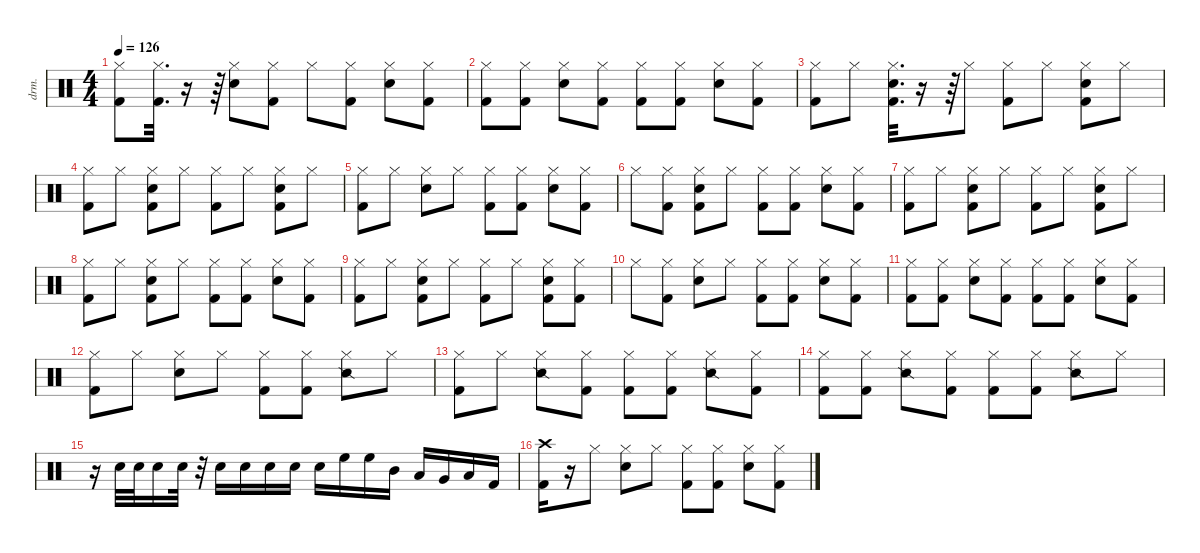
\defaultSystemsLayout 4
\hideDynamics
\bracketExtendMode nobrackets
\otherSystemsTrackNameOrientation horizontal
\track ("Drums" "drm.") {instrument percussion}
\staff {score}
\articulation defaults
\ts (4 4)
\tempo 126
\clef neutral
\ks c
("Kick (hit) 2" "Hi-Hat (closed)").8{dy f beam Down} ("Kick (hit) 2" "Hi-Hat (closed)").32{d beam Down} r.16{beam Down} r.64{beam Down} ("Snare (hit) 2" "Hi-Hat (closed)").8{beam Down} ("Hi-Hat (closed)" "Kick (hit) 2").8{beam Down} "Hi-Hat (closed)".8{beam Down} ("Hi-Hat (closed)" "Kick (hit) 2").8{beam Down} ("Snare (hit) 2" "Hi-Hat (closed)").8{beam Down} ("Kick (hit) 2" "Hi-Hat (closed)").8{beam Down} |
("Kick (hit) 2" "Hi-Hat (closed)").8{beam Down} ("Kick (hit) 2" "Hi-Hat (closed)").8{beam Down} ("Snare (hit) 2" "Hi-Hat (closed)").8{beam Down} ("Kick (hit) 2" "Hi-Hat (closed)").8{beam Down} ("Hi-Hat (closed)" "Kick (hit) 2").8{beam Down} ("Hi-Hat (closed)" "Kick (hit) 2").8{beam Down} ("Snare (hit) 2" "Hi-Hat (closed)").8{beam Down} ("Kick (hit) 2" "Hi-Hat (closed)").8{beam Down} |
("Kick (hit) 2" "Hi-Hat (closed)").8{beam Down} "Hi-Hat (closed)".8{beam Down} ("Kick (hit) 2" "Snare (hit) 2" "Hi-Hat (closed)").32{d beam Down} r.16{beam Down} r.64{beam Down} "Hi-Hat (closed)".8{beam Down} ("Hi-Hat (closed)" "Kick (hit) 2").8{beam Down} "Hi-Hat (closed)".8{beam Down} ("Snare (hit) 2" "Hi-Hat (closed)" "Kick (hit) 2").8{beam Down} "Hi-Hat (closed)".8{beam Down} |
("Kick (hit) 2" "Hi-Hat (closed)").8{beam Down} "Hi-Hat (closed)".8{beam Down} ("Kick (hit) 2" "Snare (hit) 2" "Hi-Hat (closed)").8{beam Down} "Hi-Hat (closed)".8{beam Down} ("Hi-Hat (closed)" "Kick (hit) 2").8{beam Down} "Hi-Hat (closed)".8{beam Down} ("Snare (hit) 2" "Hi-Hat (closed)" "Kick (hit) 2").8{beam Down} "Hi-Hat (closed)".8{beam Down} |
("Kick (hit) 2" "Hi-Hat (closed)").8{beam Down} "Hi-Hat (closed)".8{beam Down} ("Snare (hit) 2" "Hi-Hat (closed)").8{beam Down} "Hi-Hat (closed)".8{beam Down} ("Hi-Hat (closed)" "Kick (hit) 2").8{beam Down} ("Hi-Hat (closed)" "Kick (hit) 2").8{beam Down} ("Snare (hit) 2" "Hi-Hat (closed)").8{beam Down} ("Kick (hit) 2" "Hi-Hat (closed)").8{beam Down} |
"Hi-Hat (closed)".8{beam Down} ("Hi-Hat (closed)" "Kick (hit) 2").8{beam Down} ("Kick (hit) 2" "Snare (hit) 2" "Hi-Hat (closed)").8{beam Down} "Hi-Hat (closed)".8{beam Down} ("Hi-Hat (closed)" "Kick (hit) 2").8{beam Down} ("Hi-Hat (closed)" "Kick (hit) 2").8{beam Down} ("Snare (hit) 2" "Hi-Hat (closed)").8{beam Down} ("Kick (hit) 2" "Hi-Hat (closed)").8{beam Down} |
("Kick (hit) 2" "Hi-Hat (closed)").8{beam Down} "Hi-Hat (closed)".8{beam Down} ("Kick (hit) 2" "Snare (hit) 2" "Hi-Hat (closed)").8{beam Down} "Hi-Hat (closed)".8{beam Down} ("Hi-Hat (closed)" "Kick (hit) 2").8{beam Down} "Hi-Hat (closed)".8{beam Down} ("Snare (hit) 2" "Hi-Hat (closed)" "Kick (hit) 2").8{beam Down} "Hi-Hat (closed)".8{beam Down} |
("Kick (hit) 2" "Hi-Hat (closed)").8{beam Down} "Hi-Hat (closed)".8{beam Down} ("Kick (hit) 2" "Snare (hit) 2" "Hi-Hat (closed)").8{beam Down} "Hi-Hat (closed)".8{beam Down} ("Hi-Hat (closed)" "Kick (hit) 2").8{beam Down} ("Hi-Hat (closed)" "Kick (hit) 2").8{beam Down} ("Snare (hit) 2" "Hi-Hat (closed)").8{beam Down} ("Hi-Hat (closed)" "Kick (hit) 2").8{beam Down} |
("Kick (hit) 2" "Hi-Hat (closed)").8{beam Down} "Hi-Hat (closed)".8{beam Down} ("Kick (hit) 2" "Snare (hit) 2" "Hi-Hat (closed)").8{beam Down} "Hi-Hat (closed)".8{beam Down} ("Hi-Hat (closed)" "Kick (hit) 2").8{beam Down} "Hi-Hat (closed)".8{beam Down} ("Snare (hit) 2" "Hi-Hat (closed)" "Kick (hit) 2").8{beam Down} ("Kick (hit) 2" "Hi-Hat (closed)").8{beam Down} |
"Hi-Hat (closed)".8{beam Down} ("Hi-Hat (closed)" "Kick (hit) 2").8{beam Down} ("Snare (hit) 2" "Hi-Hat (closed)").8{beam Down} "Hi-Hat (closed)".8{beam Down} ("Hi-Hat (closed)" "Kick (hit) 2").8{beam Down} ("Hi-Hat (closed)" "Kick (hit) 2").8{beam Down} ("Snare (hit) 2" "Hi-Hat (closed)").8{beam Down} ("Kick (hit) 2" "Hi-Hat (closed)").8{beam Down} |
("Kick (hit) 2" "Hi-Hat (closed)").8{beam Down} ("Kick (hit) 2" "Hi-Hat (closed)").8{beam Down} ("Snare (hit) 2" "Hi-Hat (closed)").8{beam Down} ("Kick (hit) 2" "Hi-Hat (closed)").8{beam Down} ("Hi-Hat (closed)" "Kick (hit) 2").8{beam Down} ("Hi-Hat (closed)" "Kick (hit) 2").8{beam Down} ("Snare (hit) 2" "Hi-Hat (closed)").8{beam Down} ("Kick (hit) 2" "Hi-Hat (closed)").8{beam Down} |
("Kick (hit) 2" "Hi-Hat (closed)").8{beam Down} "Hi-Hat (closed)".8{beam Down} ("Snare (hit) 2" "Hi-Hat (closed)").8{beam Down} "Hi-Hat (closed)".8{beam Down} ("Hi-Hat (closed)" "Kick (hit) 2").8{beam Down} ("Hi-Hat (closed)" "Kick (hit) 2").8{beam Down} ("Snare (side stick) 2" "Hi-Hat (closed)").8{beam Down} "Hi-Hat (closed)".8{beam Down} |
("Kick (hit) 2" "Hi-Hat (closed)").8{beam Down} "Hi-Hat (closed)".8{beam Down} ("Snare (side stick) 2" "Hi-Hat (closed)").8{beam Down} ("Kick (hit) 2" "Hi-Hat (closed)").8{beam Down} ("Hi-Hat (closed)" "Kick (hit) 2").8{beam Down} ("Hi-Hat (closed)" "Kick (hit) 2").8{beam Down} ("Snare (side stick) 2" "Hi-Hat (closed)").8{beam Down} ("Kick (hit) 2" "Hi-Hat (closed)").8{beam Down} |
("Kick (hit) 2" "Hi-Hat (closed)").8{beam Down} ("Kick (hit) 2" "Hi-Hat (closed)").8{beam Down} ("Snare (side stick) 2" "Hi-Hat (closed)").8{beam Down} ("Kick (hit) 2" "Hi-Hat (closed)").8{beam Down} ("Hi-Hat (closed)" "Kick (hit) 2").8{beam Down} ("Hi-Hat (closed)" "Kick (hit) 2").8{beam Down} ("Snare (side stick) 2" "Hi-Hat (closed)").8{beam Down} "Hi-Hat (closed)".8{beam Down} |
r.16{beam Down} "Snare (hit) 2".32{beam Down} "Snare (hit) 2".32{beam Down} "Snare (hit) 2".16{beam Down} "Snare (hit) 2".32{beam Down} r.32{beam Down} "Snare (hit) 2".16{beam Down} "Snare (hit) 2".16{beam Down} "Snare (hit) 2".16{beam Down} "Snare (hit) 2".16{beam Down} "Snare (hit) 2".16{beam Down} "High Floor Tom (hit)".16{beam Down} "High Floor Tom (hit)".16{beam Down} "Mid Tom (hit)".16{beam Down} "Low Tom (hit)".16{beam Up} "Very Low Tom (hit)".16{beam Up} "Low Floor Tom (hit)".16{beam Up} "Kick (hit) 2".16{beam Up} |
("Crash high (hit)" "Kick (hit) 2").16{beam Down} r.16{beam Down} "Hi-Hat (closed)".8{beam Down} ("Snare (hit) 2" "Hi-Hat (closed)").8{beam Down} "Hi-Hat (closed)".8{beam Down} ("Hi-Hat (closed)" "Kick (hit) 2").8{beam Down} ("Hi-Hat (closed)" "Kick (hit) 2").8{beam Down} ("Snare (hit) 2" "Hi-Hat (closed)").8{beam Down} ("Kick (hit) 2" "Hi-Hat (closed)").8{beam Down}
